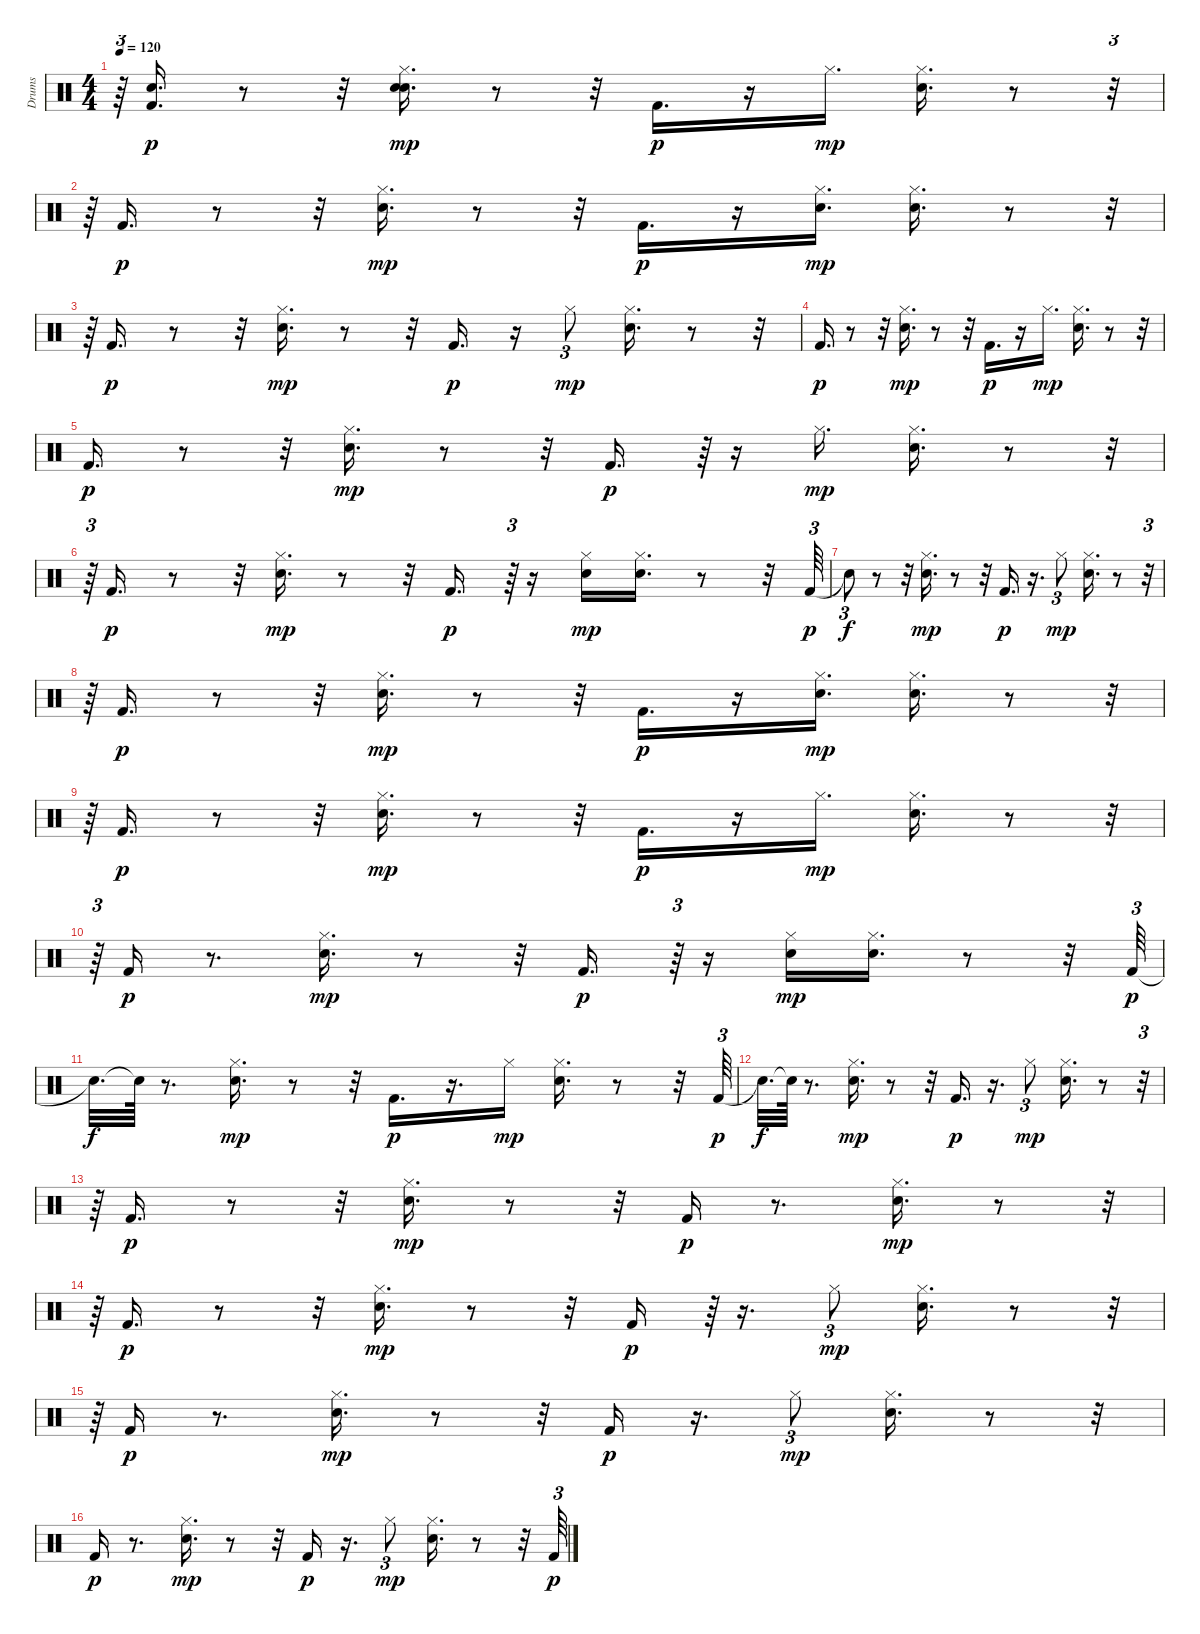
\track ("Drums" "Drums") {instrument percussion}
\staff {score}
\articulation defaults
\ts (4 4)
\tempo 120
\clef neutral
\ks c
r.64{tu (3 2) dy mp} ("Hand Clap (hit)" "Kick (hit) 2").16{d dy p} r.8 r.32 ("Snare (hit) 2" "Hi-Hat (closed)" "Hand Clap (hit)").16{d dy mp} r.8 r.32 "Kick (hit) 2".16{d dy p} r.16 "Hi-Hat (closed)".16{d dy mp} ("Snare (hit) 2" "Hi-Hat (closed)").16{d} r.8 r.32{tu (3 2)} |
r.64{tu (3 2)} "Kick (hit) 2".16{d dy p} r.8 r.32 ("Snare (hit) 2" "Hi-Hat (closed)").16{d dy mp} r.8 r.32 "Kick (hit) 2".16{d dy p} r.16 ("Snare (hit) 2" "Hi-Hat (closed)").16{d dy mp} ("Snare (hit) 2" "Hi-Hat (closed)").16{d} r.8 r.32{tu (3 2)} |
r.64{tu (3 2)} "Kick (hit) 2".16{d dy p} r.8 r.32 ("Hi-Hat (closed)" "Snare (hit) 2").16{d dy mp} r.8 r.32 "Kick (hit) 2".16{d dy p} r.16 "Hi-Hat (closed)".8{tu (3 2) dy mp} ("Hi-Hat (closed)" "Snare (hit) 2").16{d} r.8 r.32 |
"Kick (hit) 2".16{d dy p} r.8 r.32 ("Hi-Hat (closed)" "Snare (hit) 2").16{d dy mp} r.8 r.32 "Kick (hit) 2".16{d dy p} r.16 "Hi-Hat (closed)".16{d dy mp} ("Snare (hit) 2" "Hi-Hat (closed)").16{d} r.8 r.32 |
"Kick (hit) 2".16{d dy p} r.8 r.32 ("Hi-Hat (closed)" "Snare (hit) 2").16{d dy mp} r.8 r.32 "Kick (hit) 2".16{d dy p} r.64{tu (3 2)} r.16 "Hi-Hat (closed)".16{d dy mp} ("Snare (hit) 2" "Hi-Hat (closed)").16{d} r.8 r.32{tu (3 2)} |
r.64{tu (3 2)} "Kick (hit) 2".16{d dy p} r.8 r.32 ("Hi-Hat (closed)" "Snare (hit) 2").16{d dy mp} r.8 r.32 "Kick (hit) 2".16{d dy p} r.64{tu (3 2)} r.16 ("Snare (hit) 2" "Hi-Hat (closed)").16{dy mp} ("Snare (hit) 2" "Hi-Hat (closed)").16{d} r.8 r.32 "Kick (hit) 2".64{tu (3 2) dy p} |
"Snare (hit)"{t}.8{tu (3 2) dy f} r.8 r.32 ("Snare (hit) 2" "Hi-Hat (closed)").16{d dy mp} r.8 r.32 "Kick (hit) 2".16{d dy p} r.16{d} "Hi-Hat (closed)".8{tu (3 2) dy mp} ("Hi-Hat (closed)" "Snare (hit) 2").16{d} r.8 r.32{tu (3 2)} |
r.64{tu (3 2)} "Kick (hit) 2".16{d dy p} r.8 r.32 ("Hi-Hat (closed)" "Snare (hit) 2").16{d dy mp} r.8 r.32 "Kick (hit) 2".16{d dy p} r.16 ("Hi-Hat (closed)" "Snare (hit) 2").16{d dy mp} ("Hi-Hat (closed)" "Snare (hit) 2").16{d} r.8 r.32{tu (3 2)} |
r.64{tu (3 2)} "Kick (hit) 2".16{d dy p} r.8 r.32 ("Hi-Hat (closed)" "Snare (hit) 2").16{d dy mp} r.8 r.32 "Kick (hit) 2".16{d dy p} r.16 "Hi-Hat (closed)".16{d dy mp} ("Snare (hit) 2" "Hi-Hat (closed)").16{d} r.8 r.32{tu (3 2)} |
r.64{tu (3 2)} "Kick (hit) 2".16{dy p} r.8{d} ("Snare (hit) 2" "Hi-Hat (closed)").16{d dy mp} r.8 r.32 "Kick (hit) 2".16{d dy p} r.64{tu (3 2)} r.16 ("Hi-Hat (closed)" "Snare (hit) 2").16{dy mp} ("Hi-Hat (closed)" "Snare (hit) 2").16{d} r.8 r.32 "Kick (hit) 2".64{tu (3 2) dy p} |
"Snare (hit)"{t}.32{d dy f} "Snare (hit)"{t}.64 r.8{d} ("Snare (hit) 2" "Hi-Hat (closed)").16{d dy mp} r.8 r.32 "Kick (hit) 2".16{d dy p} r.16{d} "Hi-Hat (closed)".16{dy mp} ("Snare (hit) 2" "Hi-Hat (closed)").16{d} r.8 r.32 "Kick (hit) 2".64{tu (3 2) dy p} |
"Snare (hit)"{t}.32{d dy f} "Snare (hit)"{t}.64 r.8{d} ("Hi-Hat (closed)" "Snare (hit) 2").16{d dy mp} r.8 r.32 "Kick (hit) 2".16{d dy p} r.16{d} "Hi-Hat (closed)".8{tu (3 2) dy mp} ("Hi-Hat (closed)" "Snare (hit) 2").16{d} r.8 r.32{tu (3 2)} |
r.64{tu (3 2)} "Kick (hit) 2".16{d dy p} r.8 r.32 ("Hi-Hat (closed)" "Snare (hit) 2").16{d dy mp} r.8 r.32 "Kick (hit) 2".16{dy p} r.8{d} ("Snare (hit) 2" "Hi-Hat (closed)").16{d dy mp} r.8 r.32{tu (3 2)} |
r.64{tu (3 2)} "Kick (hit) 2".16{d dy p} r.8 r.32 ("Hi-Hat (closed)" "Snare (hit) 2").16{d dy mp} r.8 r.32 "Kick (hit) 2".16{dy p} r.64{tu (3 2)} r.16{d} "Hi-Hat (closed)".8{tu (3 2) dy mp} ("Hi-Hat (closed)" "Snare (hit) 2").16{d} r.8 r.32{tu (3 2)} |
r.64{tu (3 2)} "Kick (hit) 2".16{dy p} r.8{d} ("Hi-Hat (closed)" "Snare (hit) 2").16{d dy mp} r.8 r.32 "Kick (hit) 2".16{dy p} r.16{d} "Hi-Hat (closed)".8{tu (3 2) dy mp} ("Hi-Hat (closed)" "Snare (hit) 2").16{d} r.8 r.32 |
"Kick (hit) 2".16{dy p} r.8{d} ("Snare (hit) 2" "Hi-Hat (closed)").16{d dy mp} r.8 r.32 "Kick (hit) 2".16{dy p} r.16{d} "Hi-Hat (closed)".8{tu (3 2) dy mp} ("Hi-Hat (closed)" "Snare (hit) 2").16{d} r.8 r.32 "Kick (hit) 2".64{tu (3 2) dy p}
